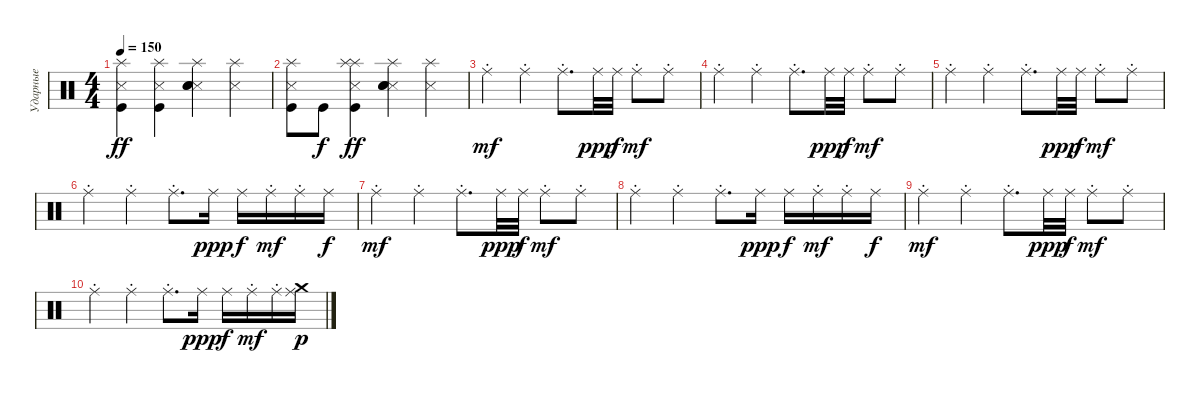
\track ("Ударные" "Ударные") {instrument percussion}
\staff {score}
\articulation defaults
\ts (4 4)
\tempo 150
\clef neutral
\ks c
("Splash (hit)" "Metronome (hit)" "Kick (hit)").4{dy ff} ("Splash (hit)" "Metronome (hit)" "Kick (hit)").4 ("Splash (hit)" "Metronome (hit)" "Electric Snare (hit)" "Snare (hit) 2").4 ("Splash (hit)" "Metronome (hit)").4 |
("Splash (hit)" "Metronome (hit)" "Kick (hit)").8 "Kick (hit)".8{dy f} ("Splash (hit)" "Metronome (hit)" "Splash (hit)" "Kick (hit)").4{dy ff} ("Splash (hit)" "Metronome (hit)" "Electric Snare (hit)" "Snare (hit) 2").4 ("Splash (hit)" "Metronome (hit)").4 |
"Ride (middle)"{st}.4{dy mf} "Ride (middle)"{st}.4 "Ride (middle)"{st}.8{d} "Ride (middle)".32{dy ppp} "Ride (middle)".32{dy f} "Ride (middle)"{st}.8{dy mf} "Ride (middle)"{st}.8 |
"Ride (middle)"{st}.4 "Ride (middle)"{st}.4 "Ride (middle)"{st}.8{d} "Ride (middle)".32{dy ppp} "Ride (middle)".32{dy f} "Ride (middle)"{st}.8{dy mf} "Ride (middle)"{st}.8 |
"Ride (middle)"{st}.4 "Ride (middle)"{st}.4 "Ride (middle)"{st}.8{d} "Ride (middle)".32{dy ppp} "Ride (middle)".32{dy f} "Ride (middle)"{st}.8{dy mf} "Ride (middle)"{st}.8 |
"Ride (middle)"{st}.4 "Ride (middle)"{st}.4 "Ride (middle)"{st}.8{d} "Ride (middle)".16{dy ppp} "Ride (middle)".16{dy f} "Ride (middle)"{st}.16{dy mf} "Ride (middle)"{st}.16 "Ride (middle)".16{dy f} |
"Ride (middle)"{st}.4{dy mf} "Ride (middle)"{st}.4 "Ride (middle)"{st}.8{d} "Ride (middle)".32{dy ppp} "Ride (middle)".32{dy f} "Ride (middle)"{st}.8{dy mf} "Ride (middle)"{st}.8 |
"Ride (middle)"{st}.4 "Ride (middle)"{st}.4 "Ride (middle)"{st}.8{d} "Ride (middle)".16{dy ppp} "Ride (middle)".16{dy f} "Ride (middle)"{st}.16{dy mf} "Ride (middle)"{st}.16 "Ride (middle)".16{dy f} |
"Ride (middle)"{st}.4{dy mf} "Ride (middle)"{st}.4 "Ride (middle)"{st}.8{d} "Ride (middle)".32{dy ppp} "Ride (middle)".32{dy f} "Ride (middle)"{st}.8{dy mf} "Ride (middle)"{st}.8 |
"Ride (middle)"{st}.4 "Ride (middle)"{st}.4 "Ride (middle)"{st}.8{d} "Ride (middle)".16{dy ppp} "Ride (middle)".16{dy f} "Ride (middle)"{st}.16{dy mf} "Ride (middle)"{st}.16 ("Ride (middle)" "Crash medium (hit)").16{dy p}
